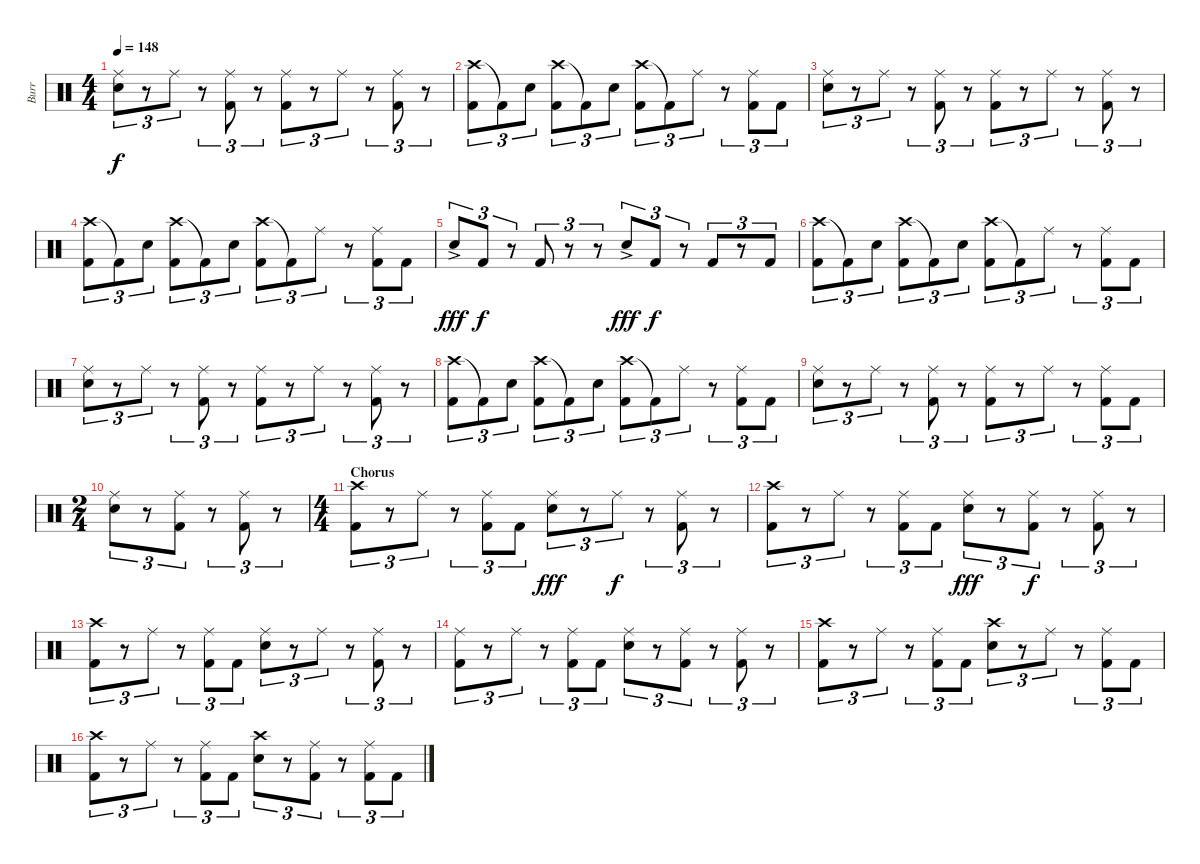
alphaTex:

\track ("Burr" "Burr") {instrument percussion}
\staff {score}
\articulation defaults
\ts (4 4)
\tempo 148
\clef neutral
\ks c
("Ride (middle)" "Snare (hit) 2").8{tu (3 2) dy f} r.8{tu (3 2)} "Ride (middle)".8{tu (3 2)} r.8{tu (3 2)} ("Ride (middle)" "Kick (hit) 2").8{tu (3 2)} r.8{tu (3 2)} ("Ride (middle)" "Kick (hit) 2").8{tu (3 2)} r.8{tu (3 2)} "Ride (middle)".8{tu (3 2)} r.8{tu (3 2)} ("Ride (middle)" "Kick (hit) 2").8{tu (3 2)} r.8{tu (3 2)} |
("Crash high (hit)" "Kick (hit) 2").8{tu (3 2)} "Kick (hit) 2"{t}.8{tu (3 2)} "Snare (hit) 2".8{tu (3 2)} ("Crash high (hit)" "Kick (hit) 2").8{tu (3 2)} "Kick (hit) 2"{t}.8{tu (3 2)} "Snare (hit) 2".8{tu (3 2)} ("Crash high (hit)" "Kick (hit) 2").8{tu (3 2)} "Kick (hit) 2"{t}.8{tu (3 2)} "Ride (middle)".8{tu (3 2)} r.8{tu (3 2)} ("Ride (middle)" "Kick (hit) 2").8{tu (3 2)} "Kick (hit) 2".8{tu (3 2)} |
("Ride (middle)" "Snare (hit) 2").8{tu (3 2)} r.8{tu (3 2)} "Ride (middle)".8{tu (3 2)} r.8{tu (3 2)} ("Ride (middle)" "Kick (hit) 2").8{tu (3 2)} r.8{tu (3 2)} ("Ride (middle)" "Kick (hit) 2").8{tu (3 2)} r.8{tu (3 2)} "Ride (middle)".8{tu (3 2)} r.8{tu (3 2)} ("Ride (middle)" "Kick (hit) 2").8{tu (3 2)} r.8{tu (3 2)} |
("Crash high (hit)" "Kick (hit) 2").8{tu (3 2)} "Kick (hit) 2"{t}.8{tu (3 2)} "Snare (hit) 2".8{tu (3 2)} ("Crash high (hit)" "Kick (hit) 2").8{tu (3 2)} "Kick (hit) 2"{t}.8{tu (3 2)} "Snare (hit) 2".8{tu (3 2)} ("Crash high (hit)" "Kick (hit) 2").8{tu (3 2)} "Kick (hit) 2"{t}.8{tu (3 2)} "Ride (middle)".8{tu (3 2)} r.8{tu (3 2)} ("Ride (middle)" "Kick (hit) 2").8{tu (3 2)} "Kick (hit) 2".8{tu (3 2)} |
"Snare (hit) 2"{ac}.8{tu (3 2) dy fff} "Kick (hit) 2".8{tu (3 2) dy f} r.8{tu (3 2)} "Kick (hit) 2".8{tu (3 2)} r.8{tu (3 2)} r.8{tu (3 2)} "Snare (hit) 2"{ac}.8{tu (3 2) dy fff} "Kick (hit) 2".8{tu (3 2) dy f} r.8{tu (3 2)} "Kick (hit) 2".8{tu (3 2)} r.8{tu (3 2)} "Kick (hit) 2".8{tu (3 2)} |
("Crash high (hit)" "Kick (hit) 2").8{tu (3 2)} "Kick (hit) 2"{t}.8{tu (3 2)} "Snare (hit) 2".8{tu (3 2)} ("Crash high (hit)" "Kick (hit) 2").8{tu (3 2)} "Kick (hit) 2"{t}.8{tu (3 2)} "Snare (hit) 2".8{tu (3 2)} ("Crash high (hit)" "Kick (hit) 2").8{tu (3 2)} "Kick (hit) 2"{t}.8{tu (3 2)} "Ride (middle)".8{tu (3 2)} r.8{tu (3 2)} ("Ride (middle)" "Kick (hit) 2").8{tu (3 2)} "Kick (hit) 2".8{tu (3 2)} |
("Ride (middle)" "Snare (hit) 2").8{tu (3 2)} r.8{tu (3 2)} "Ride (middle)".8{tu (3 2)} r.8{tu (3 2)} ("Ride (middle)" "Kick (hit) 2").8{tu (3 2)} r.8{tu (3 2)} ("Ride (middle)" "Kick (hit) 2").8{tu (3 2)} r.8{tu (3 2)} "Ride (middle)".8{tu (3 2)} r.8{tu (3 2)} ("Ride (middle)" "Kick (hit) 2").8{tu (3 2)} r.8{tu (3 2)} |
("Crash high (hit)" "Kick (hit) 2").8{tu (3 2)} "Kick (hit) 2"{t}.8{tu (3 2)} "Snare (hit) 2".8{tu (3 2)} ("Crash high (hit)" "Kick (hit) 2").8{tu (3 2)} "Kick (hit) 2"{t}.8{tu (3 2)} "Snare (hit) 2".8{tu (3 2)} ("Crash high (hit)" "Kick (hit) 2").8{tu (3 2)} "Kick (hit) 2"{t}.8{tu (3 2)} "Ride (middle)".8{tu (3 2)} r.8{tu (3 2)} ("Ride (middle)" "Kick (hit) 2").8{tu (3 2)} "Kick (hit) 2".8{tu (3 2)} |
("Ride (middle)" "Snare (hit) 2").8{tu (3 2)} r.8{tu (3 2)} "Ride (middle)".8{tu (3 2)} r.8{tu (3 2)} ("Ride (middle)" "Kick (hit) 2").8{tu (3 2)} r.8{tu (3 2)} ("Ride (middle)" "Kick (hit) 2").8{tu (3 2)} r.8{tu (3 2)} "Ride (middle)".8{tu (3 2)} r.8{tu (3 2)} ("Ride (middle)" "Kick (hit) 2").8{tu (3 2)} "Kick (hit) 2".8{tu (3 2)} |
\ts (2 4)
("Ride (middle)" "Snare (hit) 2").8{tu (3 2)} r.8{tu (3 2)} ("Ride (middle)" "Kick (hit) 2").8{tu (3 2)} r.8{tu (3 2)} ("Ride (middle)" "Kick (hit) 2").8{tu (3 2)} r.8{tu (3 2)} |
\ts (4 4)
\section ("" "Chorus")
("Crash high (hit)" "Kick (hit) 2").8{tu (3 2)} r.8{tu (3 2)} "Ride (middle)".8{tu (3 2)} r.8{tu (3 2)} ("Ride (middle)" "Kick (hit) 2").8{tu (3 2)} "Kick (hit) 2".8{tu (3 2)} ("Ride (middle)" "Snare (hit) 2").8{tu (3 2) dy fff} r.8{tu (3 2)} "Ride (middle)".8{tu (3 2) dy f} r.8{tu (3 2)} ("Ride (middle)" "Kick (hit) 2").8{tu (3 2)} r.8{tu (3 2)} |
("Crash high (hit)" "Kick (hit) 2").8{tu (3 2)} r.8{tu (3 2)} "Ride (middle)".8{tu (3 2)} r.8{tu (3 2)} ("Ride (middle)" "Kick (hit) 2").8{tu (3 2)} "Kick (hit) 2".8{tu (3 2)} ("Ride (middle)" "Snare (hit) 2").8{tu (3 2) dy fff} r.8{tu (3 2)} ("Ride (middle)" "Kick (hit) 2").8{tu (3 2) dy f} r.8{tu (3 2)} ("Ride (middle)" "Kick (hit) 2").8{tu (3 2)} r.8{tu (3 2)} |
("Crash high (hit)" "Kick (hit) 2").8{tu (3 2)} r.8{tu (3 2)} "Ride (middle)".8{tu (3 2)} r.8{tu (3 2)} ("Ride (middle)" "Kick (hit) 2").8{tu (3 2)} "Kick (hit) 2".8{tu (3 2)} ("Ride (middle)" "Snare (hit) 2").8{tu (3 2)} r.8{tu (3 2)} "Ride (middle)".8{tu (3 2)} r.8{tu (3 2)} ("Ride (middle)" "Kick (hit) 2").8{tu (3 2)} r.8{tu (3 2)} |
("Ride (middle)" "Kick (hit) 2").8{tu (3 2)} r.8{tu (3 2)} "Ride (middle)".8{tu (3 2)} r.8{tu (3 2)} ("Ride (middle)" "Kick (hit) 2").8{tu (3 2)} "Kick (hit) 2".8{tu (3 2)} ("Ride (middle)" "Snare (hit) 2").8{tu (3 2)} r.8{tu (3 2)} ("Ride (middle)" "Kick (hit) 2").8{tu (3 2)} r.8{tu (3 2)} ("Ride (middle)" "Kick (hit) 2").8{tu (3 2)} r.8{tu (3 2)} |
("Crash high (hit)" "Kick (hit) 2").8{tu (3 2)} r.8{tu (3 2)} "Ride (middle)".8{tu (3 2)} r.8{tu (3 2)} ("Ride (middle)" "Kick (hit) 2").8{tu (3 2)} "Kick (hit) 2".8{tu (3 2)} ("Crash high (hit)" "Snare (hit) 2").8{tu (3 2)} r.8{tu (3 2)} "Ride (middle)".8{tu (3 2)} r.8{tu (3 2)} ("Ride (middle)" "Kick (hit) 2").8{tu (3 2)} "Kick (hit) 2".8{tu (3 2)} |
("Crash high (hit)" "Kick (hit) 2").8{tu (3 2)} r.8{tu (3 2)} "Ride (middle)".8{tu (3 2)} r.8{tu (3 2)} ("Ride (middle)" "Kick (hit) 2").8{tu (3 2)} "Kick (hit) 2".8{tu (3 2)} ("Crash high (hit)" "Snare (hit) 2").8{tu (3 2)} r.8{tu (3 2)} ("Ride (middle)" "Kick (hit) 2").8{tu (3 2)} r.8{tu (3 2)} ("Ride (middle)" "Kick (hit) 2").8{tu (3 2)} "Kick (hit) 2".8{tu (3 2)}
